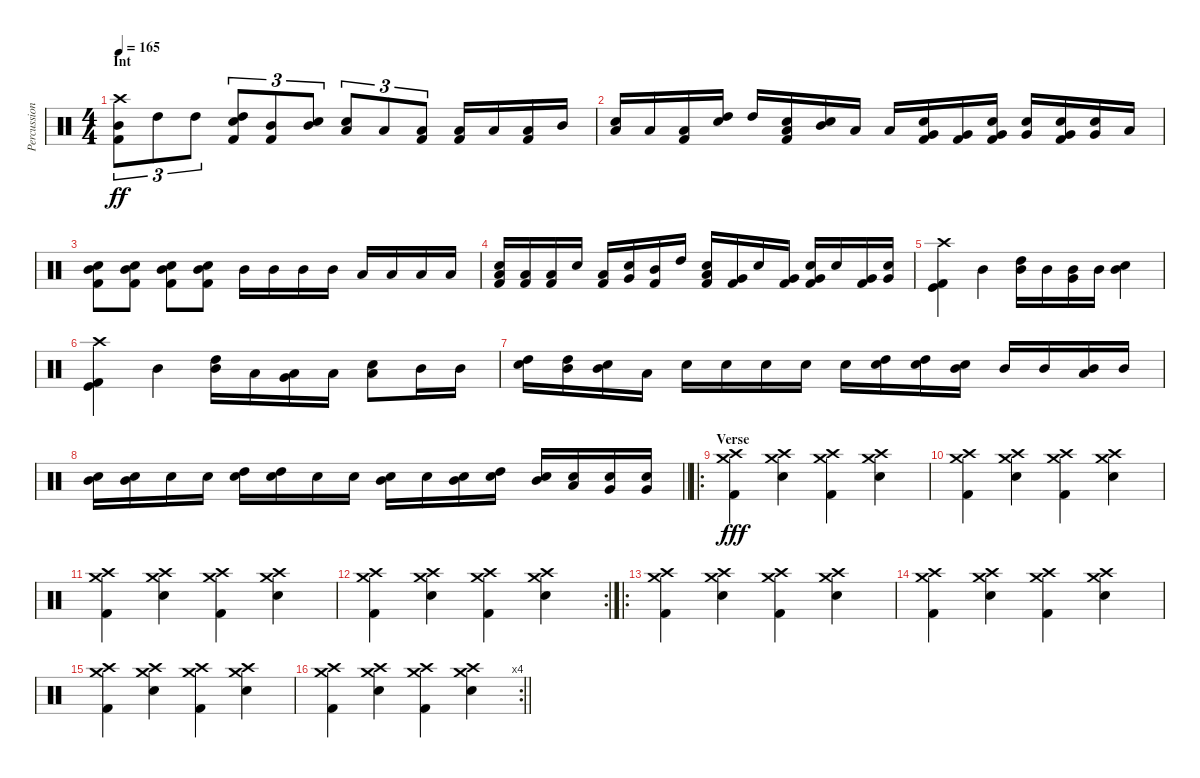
\track ("Percussion" "Percussion") {instrument percussion}
\staff {score}
\articulation defaults
\ts (4 4)
\section ("" "Int")
\tempo 165
\clef neutral
\ks c
("Crash high (hit)" "Mid Tom (hit)" "Kick (hit) 2").8{tu (3 2) dy ff} "High Tom (hit)".8{tu (3 2)} "High Tom (hit)".8{tu (3 2)} ("High Tom (hit)" "Snare (hit) 2" "Kick (hit) 2").8{tu (3 2)} ("Mid Tom (hit)" "Kick (hit) 2").8{tu (3 2)} ("Mid Tom (hit)" "Snare (hit) 2").8{tu (3 2)} ("Low Tom (hit)" "Snare (hit) 2").8{tu (3 2)} "Low Tom (hit)".8{tu (3 2)} ("Low Tom (hit)" "Kick (hit) 2").8{tu (3 2)} ("Low Tom (hit)" "Kick (hit) 2").16 "Low Tom (hit)".16 ("Low Tom (hit)" "Kick (hit) 2").16 "Mid Tom (hit)".16 |
("Low Tom (hit)" "Snare (hit) 2").16 "Low Tom (hit)".16 ("Low Tom (hit)" "Kick (hit) 2").16 ("High Tom (hit)" "Snare (hit) 2").16 "High Tom (hit)".16 ("Low Tom (hit)" "Snare (hit) 2" "Kick (hit) 2").16 ("Mid Tom (hit)" "Snare (hit) 2").16 "Low Tom (hit)".16 "Low Tom (hit)".16 ("Very Low Tom (hit)" "Snare (hit) 2" "Kick (hit) 2").16 ("Very Low Tom (hit)" "Kick (hit) 2").16 ("Very Low Tom (hit)" "Snare (hit) 2" "Kick (hit) 2").16 ("Very Low Tom (hit)" "Snare (hit) 2").16 ("Very Low Tom (hit)" "Snare (hit) 2" "Kick (hit) 2").16 ("Very Low Tom (hit)" "Snare (hit) 2").16 "Low Tom (hit)".16 |
("Mid Tom (hit)" "Snare (hit) 2" "Kick (hit) 2").8 ("Mid Tom (hit)" "Snare (hit) 2" "Kick (hit) 2").8 ("Mid Tom (hit)" "Snare (hit) 2" "Kick (hit) 2").8 ("Mid Tom (hit)" "Snare (hit) 2" "Kick (hit) 2").8 "Mid Tom (hit)".16 "Mid Tom (hit)".16 "Mid Tom (hit)".16 "Mid Tom (hit)".16 "Low Tom (hit)".16 "Low Tom (hit)".16 "Low Tom (hit)".16 "Low Tom (hit)".16 |
("Low Tom (hit)" "Snare (hit) 2" "Kick (hit) 2").16 ("Low Tom (hit)" "Kick (hit) 2").16 ("Low Tom (hit)" "Kick (hit) 2").16 "Snare (hit) 2".16 ("Low Tom (hit)" "Kick (hit) 2").16 ("Very Low Tom (hit)" "Snare (hit) 2").16 ("Mid Tom (hit)" "Kick (hit) 2").16 "High Tom (hit)".16 ("Low Tom (hit)" "Snare (hit) 2" "Kick (hit) 2").16 ("Very Low Tom (hit)" "Kick (hit) 2").16 "Snare (hit) 2".16 ("Very Low Tom (hit)" "Kick (hit) 2").16 ("Very Low Tom (hit)" "Snare (hit) 2" "Kick (hit) 2").16 "Snare (hit) 2".16 ("Very Low Tom (hit)" "Kick (hit) 2").16 ("Very Low Tom (hit)" "Snare (hit) 2").16 |
("Crash high (hit)" "Kick (hit)" "Kick (hit) 2").4 "Mid Tom (hit)".4 ("High Tom (hit)" "Mid Tom (hit)").16 "Mid Tom (hit)".16 ("Very Low Tom (hit)" "Mid Tom (hit)").16 "Mid Tom (hit)".16 ("Snare (hit) 2" "Mid Tom (hit)").4 |
("Crash high (hit)" "Kick (hit)" "Kick (hit) 2").4 "Mid Tom (hit)".4 ("High Tom (hit)" "Mid Tom (hit)").16 "Low Tom (hit)".16 ("Very Low Tom (hit)" "Low Tom (hit)").16 "Low Tom (hit)".16 ("Snare (hit) 2" "Low Tom (hit)").8 "Mid Tom (hit)".16 "Mid Tom (hit)".16 |
("High Tom (hit)" "Snare (hit) 2").16 ("High Tom (hit)" "Mid Tom (hit)").16 ("Mid Tom (hit)" "Snare (hit) 2").16 "Low Tom (hit)".16 "Snare (hit) 2".16 "Snare (hit) 2".16 "Electric Snare (hit)".16 "Electric Snare (hit)".16 "Snare (hit) 2".16 ("High Tom (hit)" "Electric Snare (hit)").16 ("High Tom (hit)" "Snare (hit) 2").16 ("Mid Tom (hit)" "Snare (hit) 2").16 "Mid Tom (hit)".16 "Mid Tom (hit)".16 ("Mid Tom (hit)" "Low Tom (hit)").16 "Mid Tom (hit)".16 |
\barLineRight lightlight
("Mid Tom (hit)" "Snare (hit) 2").16 ("Mid Tom (hit)" "Snare (hit) 2").16 "Snare (hit) 2".16 "Electric Snare (hit)".16 ("High Tom (hit)" "Electric Snare (hit)").16 ("High Tom (hit)" "Snare (hit) 2").16 "Electric Snare (hit)".16 "Snare (hit) 2".16 ("Mid Tom (hit)" "Snare (hit) 2").16 "Electric Snare (hit)".16 ("Mid Tom (hit)" "Snare (hit) 2").16 ("High Tom (hit)" "Snare (hit) 2").16 ("Mid Tom (hit)" "Electric Snare (hit)").16 ("Low Tom (hit)" "Snare (hit) 2").16 ("Very Low Tom (hit)" "Snare (hit) 2").16 ("Very Low Tom (hit)" "Snare (hit) 2").16 |
\ro
\section ("" "Verse")
("Crash high (hit)" "Crash medium (hit)" "Kick (hit) 2").4{dy fff} ("Crash high (hit)" "Crash medium (hit)" "Snare (hit) 2").4 ("Crash high (hit)" "Crash medium (hit)" "Kick (hit) 2").4 ("Crash high (hit)" "Crash medium (hit)" "Snare (hit) 2").4 |
("Crash high (hit)" "Crash medium (hit)" "Kick (hit) 2").4 ("Crash high (hit)" "Crash medium (hit)" "Snare (hit) 2").4 ("Crash high (hit)" "Crash medium (hit)" "Kick (hit) 2").4 ("Crash high (hit)" "Crash medium (hit)" "Snare (hit) 2").4 |
("Crash high (hit)" "Crash medium (hit)" "Kick (hit) 2").4 ("Crash high (hit)" "Crash medium (hit)" "Snare (hit) 2").4 ("Crash high (hit)" "Crash medium (hit)" "Kick (hit) 2").4 ("Crash high (hit)" "Crash medium (hit)" "Snare (hit) 2").4 |
\rc 2
("Crash high (hit)" "Crash medium (hit)" "Kick (hit) 2").4 ("Crash high (hit)" "Crash medium (hit)" "Snare (hit) 2").4 ("Crash high (hit)" "Crash medium (hit)" "Kick (hit) 2").4 ("Crash high (hit)" "Crash medium (hit)" "Snare (hit) 2").4 |
\ro
("Crash high (hit)" "Crash medium (hit)" "Kick (hit) 2").4 ("Crash high (hit)" "Crash medium (hit)" "Snare (hit) 2").4 ("Crash high (hit)" "Crash medium (hit)" "Kick (hit) 2").4 ("Crash high (hit)" "Crash medium (hit)" "Snare (hit) 2").4 |
("Crash high (hit)" "Crash medium (hit)" "Kick (hit) 2").4 ("Crash high (hit)" "Crash medium (hit)" "Snare (hit) 2").4 ("Crash high (hit)" "Crash medium (hit)" "Kick (hit) 2").4 ("Crash high (hit)" "Crash medium (hit)" "Snare (hit) 2").4 |
("Crash high (hit)" "Crash medium (hit)" "Kick (hit) 2").4 ("Crash high (hit)" "Crash medium (hit)" "Snare (hit) 2").4 ("Crash high (hit)" "Crash medium (hit)" "Kick (hit) 2").4 ("Crash high (hit)" "Crash medium (hit)" "Snare (hit) 2").4 |
\rc 4
\barLineRight lightlight
("Crash high (hit)" "Crash medium (hit)" "Kick (hit) 2").4 ("Crash high (hit)" "Crash medium (hit)" "Snare (hit) 2").4 ("Crash high (hit)" "Crash medium (hit)" "Kick (hit) 2").4 ("Crash high (hit)" "Crash medium (hit)" "Snare (hit) 2").4
